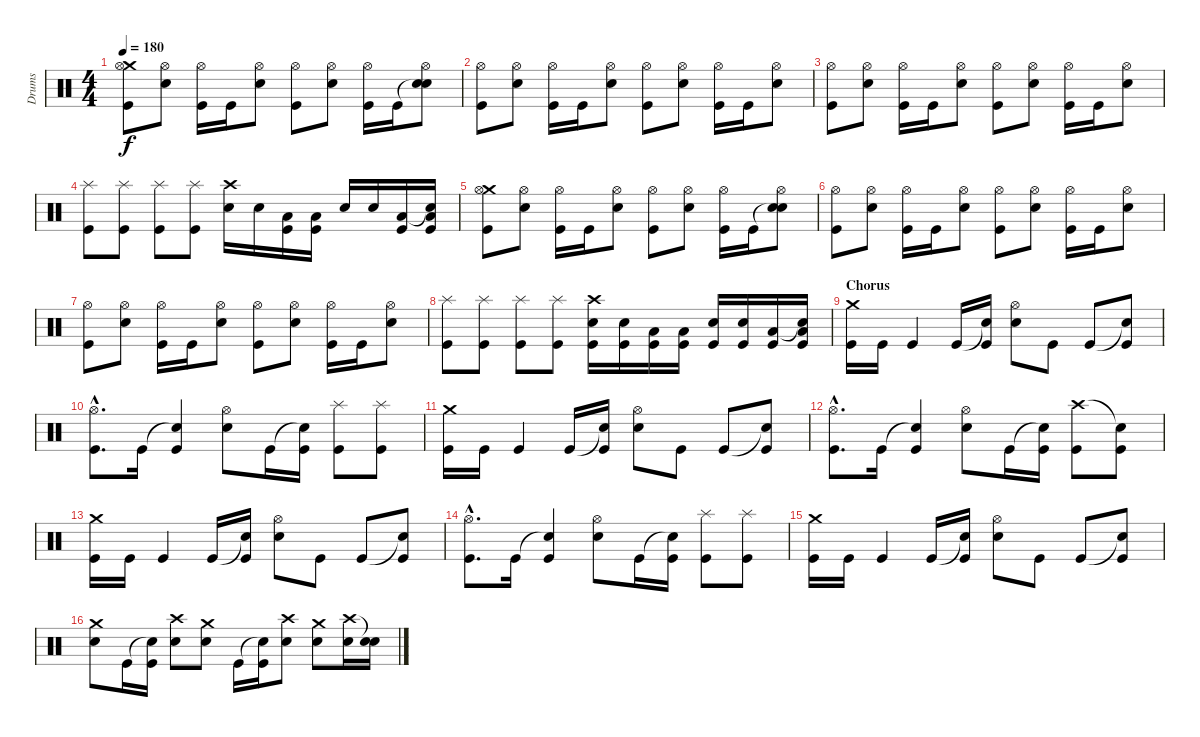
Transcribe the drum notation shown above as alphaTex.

\track ("Drums" "Drums") {instrument percussion}
\staff {score}
\articulation defaults
\ts (4 4)
\tempo 180
\clef neutral
\ks c
("Crash medium (hit)" "Hi-Hat (open)" "Kick (hit)").8{dy f} ("Hi-Hat (open)" "Electric Snare (hit)").8 ("Hi-Hat (open)" "Kick (hit)").16 "Kick (hit)".16 ("Hi-Hat (open)" "Electric Snare (hit)").8 ("Hi-Hat (open)" "Kick (hit)").8 ("Hi-Hat (open)" "Electric Snare (hit)").8 ("Hi-Hat (open)" "Kick (hit)").16 "Kick (hit)".16 ("Snare (hit)"{t} "Hi-Hat (open)" "Electric Snare (hit)").8 |
("Hi-Hat (open)" "Kick (hit)").8 ("Hi-Hat (open)" "Electric Snare (hit)").8 ("Hi-Hat (open)" "Kick (hit)").16 "Kick (hit)".16 ("Hi-Hat (open)" "Electric Snare (hit)").8 ("Hi-Hat (open)" "Kick (hit)").8 ("Hi-Hat (open)" "Electric Snare (hit)").8 ("Hi-Hat (open)" "Kick (hit)").16 "Kick (hit)".16 ("Hi-Hat (open)" "Electric Snare (hit)").8 |
("Hi-Hat (open)" "Kick (hit)").8 ("Hi-Hat (open)" "Electric Snare (hit)").8 ("Hi-Hat (open)" "Kick (hit)").16 "Kick (hit)".16 ("Hi-Hat (open)" "Electric Snare (hit)").8 ("Hi-Hat (open)" "Kick (hit)").8 ("Hi-Hat (open)" "Electric Snare (hit)").8 ("Hi-Hat (open)" "Kick (hit)").16 "Kick (hit)".16 ("Hi-Hat (open)" "Electric Snare (hit)").8 |
("Splash (hit)" "Kick (hit)").8 ("Splash (hit)" "Kick (hit)").8 ("Splash (hit)" "Kick (hit)").8 ("Splash (hit)" "Kick (hit)").8 ("Crash high (hit)" "Electric Snare (hit)").16 "Electric Snare (hit)".16 ("Low Floor Tom (hit)" "Kick (hit)").16 ("Low Floor Tom (hit)" "Kick (hit)").16 "Electric Snare (hit)".16 "Electric Snare (hit)".16 ("Low Floor Tom (hit)" "Kick (hit)").16 ("Snare (hit)"{t} "Low Floor Tom (hit)" "Kick (hit)").16 |
("Crash medium (hit)" "Hi-Hat (open)" "Kick (hit)").8 ("Hi-Hat (open)" "Electric Snare (hit)").8 ("Hi-Hat (open)" "Kick (hit)").16 "Kick (hit)".16 ("Hi-Hat (open)" "Electric Snare (hit)").8 ("Hi-Hat (open)" "Kick (hit)").8 ("Hi-Hat (open)" "Electric Snare (hit)").8 ("Hi-Hat (open)" "Kick (hit)").16 "Kick (hit)".16 ("Snare (hit)"{t} "Hi-Hat (open)" "Electric Snare (hit)").8 |
("Hi-Hat (open)" "Kick (hit)").8 ("Hi-Hat (open)" "Electric Snare (hit)").8 ("Hi-Hat (open)" "Kick (hit)").16 "Kick (hit)".16 ("Hi-Hat (open)" "Electric Snare (hit)").8 ("Hi-Hat (open)" "Kick (hit)").8 ("Hi-Hat (open)" "Electric Snare (hit)").8 ("Hi-Hat (open)" "Kick (hit)").16 "Kick (hit)".16 ("Hi-Hat (open)" "Electric Snare (hit)").8 |
("Hi-Hat (open)" "Kick (hit)").8 ("Hi-Hat (open)" "Electric Snare (hit)").8 ("Hi-Hat (open)" "Kick (hit)").16 "Kick (hit)".16 ("Hi-Hat (open)" "Electric Snare (hit)").8 ("Hi-Hat (open)" "Kick (hit)").8 ("Hi-Hat (open)" "Electric Snare (hit)").8 ("Hi-Hat (open)" "Kick (hit)").16 "Kick (hit)".16 ("Hi-Hat (open)" "Electric Snare (hit)").8 |
("Splash (hit)" "Kick (hit)").8 ("Splash (hit)" "Kick (hit)").8 ("Splash (hit)" "Kick (hit)").8 ("Splash (hit)" "Kick (hit)").8 ("Crash high (hit)" "Electric Snare (hit)" "Kick (hit)").16 ("Electric Snare (hit)" "Kick (hit)").16 ("Low Floor Tom (hit)" "Kick (hit)").16 ("Low Floor Tom (hit)" "Kick (hit)").16 ("Electric Snare (hit)" "Kick (hit)").16 ("Electric Snare (hit)" "Kick (hit)").16 ("Low Floor Tom (hit)" "Kick (hit)").16 ("Snare (hit)"{t} "Low Floor Tom (hit)" "Kick (hit)").16 |
\section ("" "Chorus")
("Crash medium (hit)" "Kick (hit)").16 "Kick (hit)".16 "Kick (hit)".4 "Kick (hit)".16 ("Snare (hit)"{t} "Kick (hit)").16 ("Hi-Hat (open)" "Electric Snare (hit)").8 "Kick (hit)".8 "Kick (hit)".8 ("Snare (hit)"{t} "Kick (hit)").8 |
("Hi-Hat (open)"{hac} "Kick (hit)"{hac}).8{d} "Kick (hit)".16 ("Snare (hit)"{t} "Kick (hit)").4 ("Hi-Hat (open)" "Electric Snare (hit)").8 "Kick (hit)".16 ("Snare (hit)"{t} "Kick (hit)").16 ("Splash (hit)" "Kick (hit)").8 ("Splash (hit)" "Kick (hit)").8 |
("Crash medium (hit)" "Kick (hit)").16 "Kick (hit)".16 "Kick (hit)".4 "Kick (hit)".16 ("Snare (hit)"{t} "Kick (hit)").16 ("Hi-Hat (open)" "Electric Snare (hit)").8 "Kick (hit)".8 "Kick (hit)".8 ("Snare (hit)"{t} "Kick (hit)").8 |
("Hi-Hat (open)"{hac} "Kick (hit)"{hac}).8{d} "Kick (hit)".16 ("Snare (hit)"{t} "Kick (hit)").4 ("Hi-Hat (open)" "Electric Snare (hit)").8 "Kick (hit)".16 ("Snare (hit)"{t} "Kick (hit)").16 ("Crash high (hit)" "Kick (hit)").8 ("Snare (hit)"{t} "Kick (hit)").8 |
("Crash medium (hit)" "Kick (hit)").16 "Kick (hit)".16 "Kick (hit)".4 "Kick (hit)".16 ("Snare (hit)"{t} "Kick (hit)").16 ("Hi-Hat (open)" "Electric Snare (hit)").8 "Kick (hit)".8 "Kick (hit)".8 ("Snare (hit)"{t} "Kick (hit)").8 |
("Hi-Hat (open)"{hac} "Kick (hit)"{hac}).8{d} "Kick (hit)".16 ("Snare (hit)"{t} "Kick (hit)").4 ("Hi-Hat (open)" "Electric Snare (hit)").8 "Kick (hit)".16 ("Snare (hit)"{t} "Kick (hit)").16 ("Splash (hit)" "Kick (hit)").8 ("Splash (hit)" "Kick (hit)").8 |
("Crash medium (hit)" "Kick (hit)").16 "Kick (hit)".16 "Kick (hit)".4 "Kick (hit)".16 ("Snare (hit)"{t} "Kick (hit)").16 ("Hi-Hat (open)" "Electric Snare (hit)").8 "Kick (hit)".8 "Kick (hit)".8 ("Snare (hit)"{t} "Kick (hit)").8 |
("Crash medium (hit)" "Electric Snare (hit)").8 "Kick (hit)".16 ("Snare (hit)"{t} "Kick (hit)").16 ("Crash high (hit)" "Electric Snare (hit)").8 ("Crash medium (hit)" "Electric Snare (hit)").8 "Kick (hit)".16 ("Snare (hit)"{t} "Kick (hit)").16 ("Crash high (hit)" "Electric Snare (hit)").8 ("Crash medium (hit)" "Electric Snare (hit)").8 ("Crash high (hit)" "Electric Snare (hit)").16 ("Snare (hit)"{t} "Electric Snare (hit)").16
